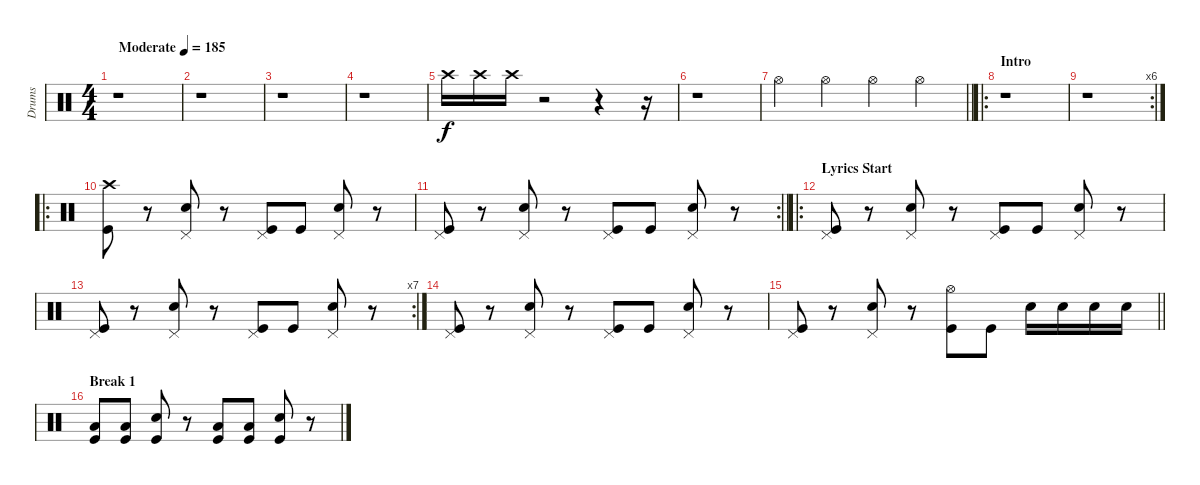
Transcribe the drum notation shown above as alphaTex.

\track ("Drums" "Drums") {instrument percussion}
\staff {score}
\articulation defaults
\ts (4 4)
\tempo (185 "Moderate")
\clef neutral
\ks c
r.1{dy f} |
r.1 |
r.1 |
r.1 |
"Crash high (hit)".16 "Crash high (hit)".16 "Crash high (hit)".16 r.2 r.4 r.16 |
r.1 |
\barLineRight lightlight "Hi-Hat (open)".4 "Hi-Hat (open)".4 "Hi-Hat (open)".4 "Hi-Hat (open)".4
|
\ro
\section ("" "Intro")
r.1 |
\rc 6
r.1 |
\ro
("Crash high (hit)" "Kick (hit)").8 r.8 ("Pedal Hi-Hat (hit)" "Electric Snare (hit)").8 r.8 ("Pedal Hi-Hat (hit)" "Kick (hit)").8 "Kick (hit)".8 ("Pedal Hi-Hat (hit)" "Electric Snare (hit)").8 r.8 |
\rc 2
\barLineRight lightlight
("Pedal Hi-Hat (hit)" "Kick (hit)").8 r.8 ("Pedal Hi-Hat (hit)" "Electric Snare (hit)").8 r.8 ("Pedal Hi-Hat (hit)" "Kick (hit)").8 "Kick (hit)".8 ("Pedal Hi-Hat (hit)" "Electric Snare (hit)").8 r.8 |
\ro
\section ("" "Lyrics Start")
("Pedal Hi-Hat (hit)" "Kick (hit)").8 r.8 ("Pedal Hi-Hat (hit)" "Electric Snare (hit)").8 r.8 ("Pedal Hi-Hat (hit)" "Kick (hit)").8 "Kick (hit)".8 ("Pedal Hi-Hat (hit)" "Electric Snare (hit)").8 r.8 |
\rc 7
("Pedal Hi-Hat (hit)" "Kick (hit)").8 r.8 ("Pedal Hi-Hat (hit)" "Electric Snare (hit)").8 r.8 ("Pedal Hi-Hat (hit)" "Kick (hit)").8 "Kick (hit)".8 ("Pedal Hi-Hat (hit)" "Electric Snare (hit)").8 r.8 |
("Pedal Hi-Hat (hit)" "Kick (hit)").8 r.8 ("Pedal Hi-Hat (hit)" "Electric Snare (hit)").8 r.8 ("Pedal Hi-Hat (hit)" "Kick (hit)").8 "Kick (hit)".8 ("Pedal Hi-Hat (hit)" "Electric Snare (hit)").8 r.8 |
\barLineRight lightlight
("Pedal Hi-Hat (hit)" "Kick (hit)").8 r.8 ("Pedal Hi-Hat (hit)" "Electric Snare (hit)").8 r.8 ("Hi-Hat (open)" "Kick (hit)").8 "Kick (hit)".8 "Electric Snare (hit)".16 "Electric Snare (hit)".16 "Electric Snare (hit)".16 "Electric Snare (hit)".16 |
\section ("" "Break 1")
("Low Floor Tom (hit)" "Kick (hit)").8 ("Low Floor Tom (hit)" "Kick (hit)").8 ("Electric Snare (hit)" "Kick (hit)").8 r.8 ("Low Floor Tom (hit)" "Kick (hit)").8 ("Low Floor Tom (hit)" "Kick (hit)").8 ("Electric Snare (hit)" "Kick (hit)").8 r.8
